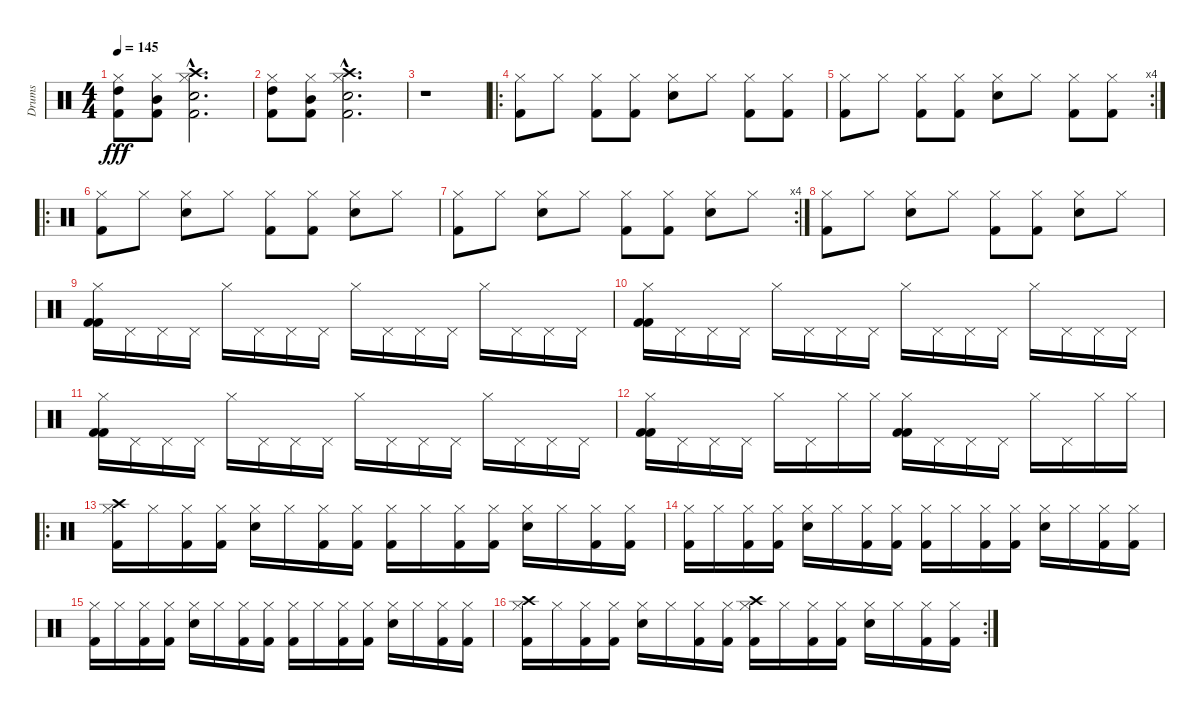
\track ("Drums" "Drums") {instrument percussion}
\staff {score}
\articulation defaults
\ts (4 4)
\tempo 145
\clef neutral
\ks c
("High Tom (hit)" "Hi-Hat (closed)" "Kick (hit) 2").8{dy fff} ("Mid Tom (hit)" "Hi-Hat (closed)" "Kick (hit) 2").8 ("Hi-Hat (closed)"{hac} "Snare (hit) 2"{hac} "Crash high (hit)"{hac} "Kick (hit) 2"{hac}).2{d} |
("High Tom (hit)" "Hi-Hat (closed)" "Kick (hit) 2").8 ("Mid Tom (hit)" "Hi-Hat (closed)" "Kick (hit) 2").8 ("Hi-Hat (closed)"{hac} "Snare (hit) 2"{hac} "Crash high (hit)"{hac} "Kick (hit) 2"{hac}).2{d} |
r.1 |
\ro
("Hi-Hat (closed)" "Kick (hit) 2").8 "Hi-Hat (closed)".8 ("Hi-Hat (closed)" "Kick (hit) 2").8 ("Hi-Hat (closed)" "Kick (hit) 2").8 ("Hi-Hat (closed)" "Snare (hit) 2").8 "Hi-Hat (closed)".8 ("Hi-Hat (closed)" "Kick (hit) 2").8 ("Hi-Hat (closed)" "Kick (hit) 2").8 |
\rc 4
("Hi-Hat (closed)" "Kick (hit) 2").8 "Hi-Hat (closed)".8 ("Hi-Hat (closed)" "Kick (hit) 2").8 ("Hi-Hat (closed)" "Kick (hit) 2").8 ("Hi-Hat (closed)" "Snare (hit) 2").8 "Hi-Hat (closed)".8 ("Hi-Hat (closed)" "Kick (hit) 2").8 ("Hi-Hat (closed)" "Kick (hit) 2").8 |
\ro
("Hi-Hat (closed)" "Kick (hit) 2").8 "Hi-Hat (closed)".8 ("Hi-Hat (closed)" "Snare (hit) 2").8 "Hi-Hat (closed)".8 ("Hi-Hat (closed)" "Kick (hit) 2").8 ("Hi-Hat (closed)" "Kick (hit) 2").8 ("Hi-Hat (closed)" "Snare (hit) 2").8 "Hi-Hat (closed)".8 |
\rc 4
("Hi-Hat (closed)" "Kick (hit) 2").8 "Hi-Hat (closed)".8 ("Hi-Hat (closed)" "Snare (hit) 2").8 "Hi-Hat (closed)".8 ("Hi-Hat (closed)" "Kick (hit) 2").8 ("Hi-Hat (closed)" "Kick (hit) 2").8 ("Hi-Hat (closed)" "Snare (hit) 2").8 "Hi-Hat (closed)".8 |
("Hi-Hat (closed)" "Kick (hit) 2").8 "Hi-Hat (closed)".8 ("Hi-Hat (closed)" "Snare (hit) 2").8 "Hi-Hat (closed)".8 ("Hi-Hat (closed)" "Kick (hit) 2").8 ("Hi-Hat (closed)" "Kick (hit) 2").8 ("Hi-Hat (closed)" "Snare (hit) 2").8 "Hi-Hat (closed)".8 |
("Hi-Hat (closed)" "Kick (hit) 2" "Kick (hit) 2").16 "Pedal Hi-Hat (hit)".16 "Pedal Hi-Hat (hit)".16 "Pedal Hi-Hat (hit)".16 "Hi-Hat (closed)".16 "Pedal Hi-Hat (hit)".16 "Pedal Hi-Hat (hit)".16 "Pedal Hi-Hat (hit)".16 "Hi-Hat (closed)".16 "Pedal Hi-Hat (hit)".16 "Pedal Hi-Hat (hit)".16 "Pedal Hi-Hat (hit)".16 "Hi-Hat (closed)".16 "Pedal Hi-Hat (hit)".16 "Pedal Hi-Hat (hit)".16 "Pedal Hi-Hat (hit)".16 |
("Hi-Hat (closed)" "Kick (hit) 2" "Kick (hit) 2").16 "Pedal Hi-Hat (hit)".16 "Pedal Hi-Hat (hit)".16 "Pedal Hi-Hat (hit)".16 "Hi-Hat (closed)".16 "Pedal Hi-Hat (hit)".16 "Pedal Hi-Hat (hit)".16 "Pedal Hi-Hat (hit)".16 "Hi-Hat (closed)".16 "Pedal Hi-Hat (hit)".16 "Pedal Hi-Hat (hit)".16 "Pedal Hi-Hat (hit)".16 "Hi-Hat (closed)".16 "Pedal Hi-Hat (hit)".16 "Pedal Hi-Hat (hit)".16 "Pedal Hi-Hat (hit)".16 |
("Hi-Hat (closed)" "Kick (hit) 2" "Kick (hit) 2").16 "Pedal Hi-Hat (hit)".16 "Pedal Hi-Hat (hit)".16 "Pedal Hi-Hat (hit)".16 "Hi-Hat (closed)".16 "Pedal Hi-Hat (hit)".16 "Pedal Hi-Hat (hit)".16 "Pedal Hi-Hat (hit)".16 "Hi-Hat (closed)".16 "Pedal Hi-Hat (hit)".16 "Pedal Hi-Hat (hit)".16 "Pedal Hi-Hat (hit)".16 "Hi-Hat (closed)".16 "Pedal Hi-Hat (hit)".16 "Pedal Hi-Hat (hit)".16 "Pedal Hi-Hat (hit)".16 |
("Hi-Hat (closed)" "Kick (hit) 2" "Kick (hit) 2").16 "Pedal Hi-Hat (hit)".16 "Pedal Hi-Hat (hit)".16 "Pedal Hi-Hat (hit)".16 "Hi-Hat (closed)".16 "Pedal Hi-Hat (hit)".16 "Hi-Hat (closed)".16 "Hi-Hat (closed)".16 ("Hi-Hat (closed)" "Kick (hit) 2" "Kick (hit) 2").16 "Pedal Hi-Hat (hit)".16 "Pedal Hi-Hat (hit)".16 "Pedal Hi-Hat (hit)".16 "Hi-Hat (closed)".16 "Pedal Hi-Hat (hit)".16 "Hi-Hat (closed)".16 "Hi-Hat (closed)".16 |
\ro
("Hi-Hat (closed)" "Kick (hit) 2" "Crash high (hit)").16 "Hi-Hat (closed)".16 ("Hi-Hat (closed)" "Kick (hit) 2").16 ("Hi-Hat (closed)" "Kick (hit) 2").16 ("Hi-Hat (closed)" "Snare (hit) 2").16 "Hi-Hat (closed)".16 ("Hi-Hat (closed)" "Kick (hit) 2").16 ("Hi-Hat (closed)" "Kick (hit) 2").16 ("Hi-Hat (closed)" "Kick (hit) 2").16 "Hi-Hat (closed)".16 ("Hi-Hat (closed)" "Kick (hit) 2").16 ("Hi-Hat (closed)" "Kick (hit) 2").16 ("Hi-Hat (closed)" "Snare (hit) 2").16 "Hi-Hat (closed)".16 ("Hi-Hat (closed)" "Kick (hit) 2").16 ("Hi-Hat (closed)" "Kick (hit) 2").16 |
("Hi-Hat (closed)" "Kick (hit) 2").16 "Hi-Hat (closed)".16 ("Hi-Hat (closed)" "Kick (hit) 2").16 ("Hi-Hat (closed)" "Kick (hit) 2").16 ("Hi-Hat (closed)" "Snare (hit) 2").16 "Hi-Hat (closed)".16 ("Hi-Hat (closed)" "Kick (hit) 2").16 ("Hi-Hat (closed)" "Kick (hit) 2").16 ("Hi-Hat (closed)" "Kick (hit) 2").16 "Hi-Hat (closed)".16 ("Hi-Hat (closed)" "Kick (hit) 2").16 ("Hi-Hat (closed)" "Kick (hit) 2").16 ("Hi-Hat (closed)" "Snare (hit) 2").16 "Hi-Hat (closed)".16 ("Hi-Hat (closed)" "Kick (hit) 2").16 ("Hi-Hat (closed)" "Kick (hit) 2").16 |
("Hi-Hat (closed)" "Kick (hit) 2").16 "Hi-Hat (closed)".16 ("Hi-Hat (closed)" "Kick (hit) 2").16 ("Hi-Hat (closed)" "Kick (hit) 2").16 ("Hi-Hat (closed)" "Snare (hit) 2").16 "Hi-Hat (closed)".16 ("Hi-Hat (closed)" "Kick (hit) 2").16 ("Hi-Hat (closed)" "Kick (hit) 2").16 ("Hi-Hat (closed)" "Kick (hit) 2").16 "Hi-Hat (closed)".16 ("Hi-Hat (closed)" "Kick (hit) 2").16 ("Hi-Hat (closed)" "Kick (hit) 2").16 ("Hi-Hat (closed)" "Snare (hit) 2").16 "Hi-Hat (closed)".16 ("Hi-Hat (closed)" "Kick (hit) 2").16 ("Hi-Hat (closed)" "Kick (hit) 2").16 |
\rc 2
("Hi-Hat (closed)" "Kick (hit) 2" "Crash high (hit)").16 "Hi-Hat (closed)".16 ("Hi-Hat (closed)" "Kick (hit) 2").16 ("Hi-Hat (closed)" "Kick (hit) 2").16 ("Hi-Hat (closed)" "Snare (hit) 2").16 "Hi-Hat (closed)".16 ("Hi-Hat (closed)" "Kick (hit) 2").16 ("Hi-Hat (closed)" "Kick (hit) 2").16 ("Hi-Hat (closed)" "Kick (hit) 2" "Crash high (hit)").16 "Hi-Hat (closed)".16 ("Hi-Hat (closed)" "Kick (hit) 2").16 ("Hi-Hat (closed)" "Kick (hit) 2").16 ("Hi-Hat (closed)" "Snare (hit) 2").16 "Hi-Hat (closed)".16 ("Hi-Hat (closed)" "Kick (hit) 2").16 ("Hi-Hat (closed)" "Kick (hit) 2").16
